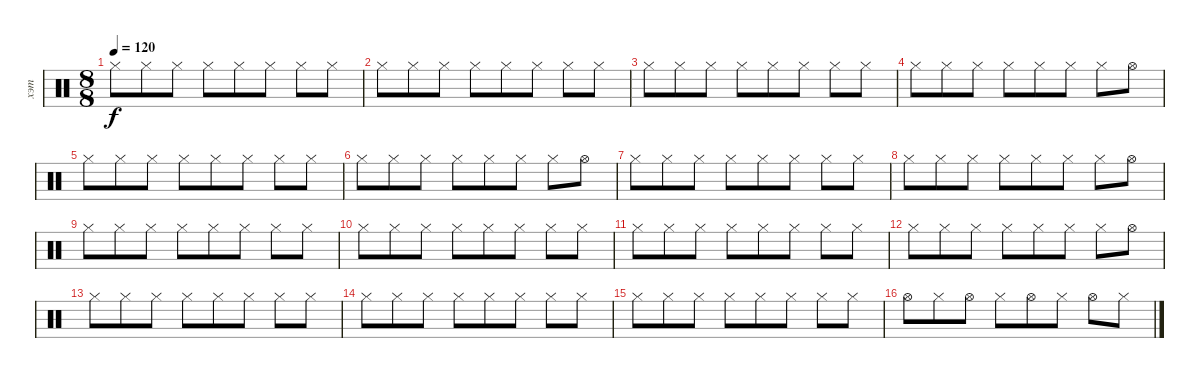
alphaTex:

\track ("хэт" "хэт") {instrument percussion}
\staff {score}
\articulation defaults
\ts (8 8)
\tempo 120
\clef neutral
\ks c "Hi-Hat (closed)".8{dy f} "Hi-Hat (closed)".8 "Hi-Hat (closed)".8 "Hi-Hat (closed)".8 "Hi-Hat (closed)".8 "Hi-Hat (closed)".8 "Hi-Hat (closed)".8 "Hi-Hat (closed)".8
|
"Hi-Hat (closed)".8 "Hi-Hat (closed)".8 "Hi-Hat (closed)".8 "Hi-Hat (closed)".8 "Hi-Hat (closed)".8 "Hi-Hat (closed)".8 "Hi-Hat (closed)".8 "Hi-Hat (closed)".8 |
"Hi-Hat (closed)".8 "Hi-Hat (closed)".8 "Hi-Hat (closed)".8 "Hi-Hat (closed)".8 "Hi-Hat (closed)".8 "Hi-Hat (closed)".8 "Hi-Hat (closed)".8 "Hi-Hat (closed)".8 |
"Hi-Hat (closed)".8 "Hi-Hat (closed)".8 "Hi-Hat (closed)".8 "Hi-Hat (closed)".8 "Hi-Hat (closed)".8 "Hi-Hat (closed)".8 "Hi-Hat (closed)".8 "Hi-Hat (open)".8 |
"Hi-Hat (closed)".8 "Hi-Hat (closed)".8 "Hi-Hat (closed)".8 "Hi-Hat (closed)".8 "Hi-Hat (closed)".8 "Hi-Hat (closed)".8 "Hi-Hat (closed)".8 "Hi-Hat (closed)".8 |
"Hi-Hat (closed)".8 "Hi-Hat (closed)".8 "Hi-Hat (closed)".8 "Hi-Hat (closed)".8 "Hi-Hat (closed)".8 "Hi-Hat (closed)".8 "Hi-Hat (closed)".8 "Hi-Hat (open)".8 |
"Hi-Hat (closed)".8 "Hi-Hat (closed)".8 "Hi-Hat (closed)".8 "Hi-Hat (closed)".8 "Hi-Hat (closed)".8 "Hi-Hat (closed)".8 "Hi-Hat (closed)".8 "Hi-Hat (closed)".8 |
"Hi-Hat (closed)".8 "Hi-Hat (closed)".8 "Hi-Hat (closed)".8 "Hi-Hat (closed)".8 "Hi-Hat (closed)".8 "Hi-Hat (closed)".8 "Hi-Hat (closed)".8 "Hi-Hat (open)".8 |
"Hi-Hat (closed)".8 "Hi-Hat (closed)".8 "Hi-Hat (closed)".8 "Hi-Hat (closed)".8 "Hi-Hat (closed)".8 "Hi-Hat (closed)".8 "Hi-Hat (closed)".8 "Hi-Hat (closed)".8 |
"Hi-Hat (closed)".8 "Hi-Hat (closed)".8 "Hi-Hat (closed)".8 "Hi-Hat (closed)".8 "Hi-Hat (closed)".8 "Hi-Hat (closed)".8 "Hi-Hat (closed)".8 "Hi-Hat (closed)".8 |
"Hi-Hat (closed)".8 "Hi-Hat (closed)".8 "Hi-Hat (closed)".8 "Hi-Hat (closed)".8 "Hi-Hat (closed)".8 "Hi-Hat (closed)".8 "Hi-Hat (closed)".8 "Hi-Hat (closed)".8 |
"Hi-Hat (closed)".8 "Hi-Hat (closed)".8 "Hi-Hat (closed)".8 "Hi-Hat (closed)".8 "Hi-Hat (closed)".8 "Hi-Hat (closed)".8 "Hi-Hat (closed)".8 "Hi-Hat (open)".8 |
"Hi-Hat (closed)".8 "Hi-Hat (closed)".8 "Hi-Hat (closed)".8 "Hi-Hat (closed)".8 "Hi-Hat (closed)".8 "Hi-Hat (closed)".8 "Hi-Hat (closed)".8 "Hi-Hat (closed)".8 |
"Hi-Hat (closed)".8 "Hi-Hat (closed)".8 "Hi-Hat (closed)".8 "Hi-Hat (closed)".8 "Hi-Hat (closed)".8 "Hi-Hat (closed)".8 "Hi-Hat (closed)".8 "Hi-Hat (closed)".8 |
"Hi-Hat (closed)".8 "Hi-Hat (closed)".8 "Hi-Hat (closed)".8 "Hi-Hat (closed)".8 "Hi-Hat (closed)".8 "Hi-Hat (closed)".8 "Hi-Hat (closed)".8 "Hi-Hat (closed)".8 |
"Hi-Hat (open)".8 "Hi-Hat (closed)".8 "Hi-Hat (open)".8 "Hi-Hat (closed)".8 "Hi-Hat (open)".8 "Hi-Hat (closed)".8 "Hi-Hat (open)".8 "Hi-Hat (closed)".8
